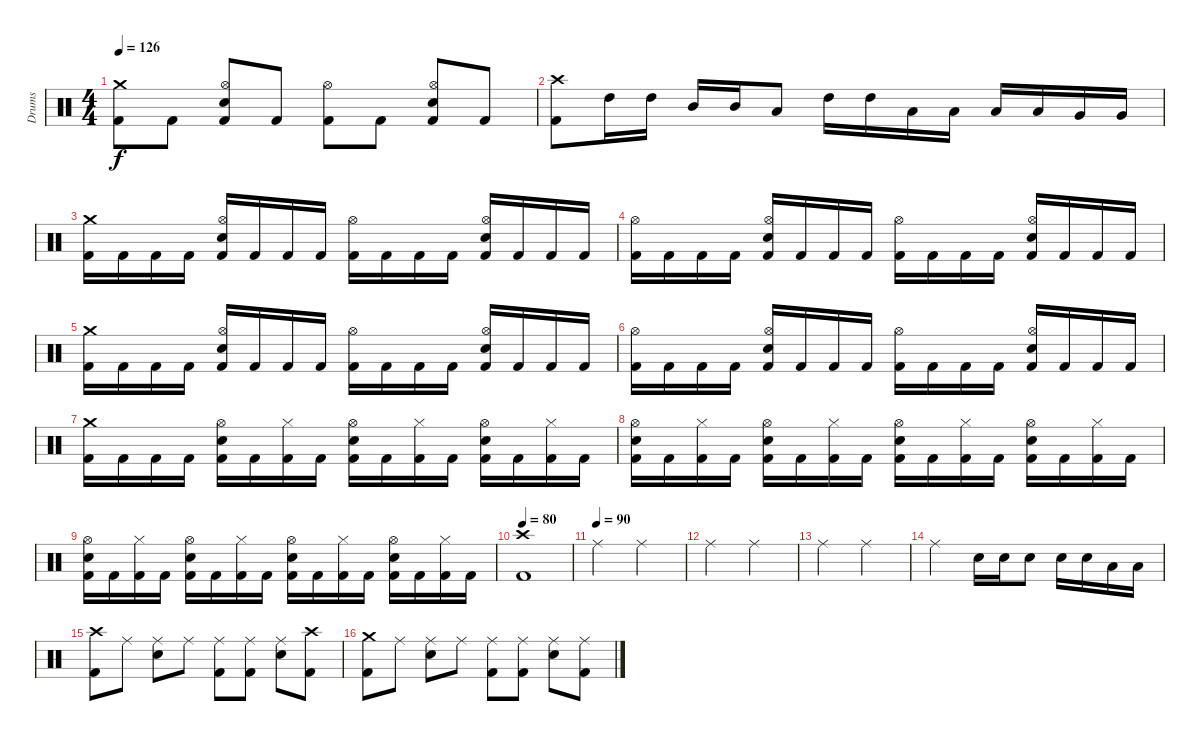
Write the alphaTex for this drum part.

\track ("Drums" "Drums") {instrument percussion}
\staff {score}
\articulation defaults
\ts (4 4)
\tempo 126
\clef neutral
\ks c
("Crash medium (hit)" "Kick (hit) 2").8{dy f} "Kick (hit) 2".8 ("Hi-Hat (open)" "Electric Snare (hit)" "Kick (hit) 2").8 "Kick (hit) 2".8 ("Hi-Hat (open)" "Kick (hit) 2").8 "Kick (hit) 2".8 ("Hi-Hat (open)" "Electric Snare (hit)" "Kick (hit) 2").8 "Kick (hit) 2".8 |
("Crash high (hit)" "Kick (hit) 2").8 "High Tom (hit)".16 "High Tom (hit)".16 "Mid Tom (hit)".16 "Mid Tom (hit)".16 "Low Tom (hit)".8 "High Tom (hit)".16 "High Tom (hit)".16 "Low Tom (hit)".16 "Low Tom (hit)".16 "Low Floor Tom (hit)".16 "Low Floor Tom (hit)".16 "Very Low Tom (hit)".16 "Very Low Tom (hit)".16 |
("Crash medium (hit)" "Kick (hit) 2").16 "Kick (hit) 2".16 "Kick (hit) 2".16 "Kick (hit) 2".16 ("Hi-Hat (open)" "Electric Snare (hit)" "Kick (hit) 2").16 "Kick (hit) 2".16 "Kick (hit) 2".16 "Kick (hit) 2".16 ("Hi-Hat (open)" "Kick (hit) 2").16 "Kick (hit) 2".16 "Kick (hit) 2".16 "Kick (hit) 2".16 ("Hi-Hat (open)" "Electric Snare (hit)" "Kick (hit) 2").16 "Kick (hit) 2".16 "Kick (hit) 2".16 "Kick (hit) 2".16 |
("Hi-Hat (open)" "Kick (hit) 2").16 "Kick (hit) 2".16 "Kick (hit) 2".16 "Kick (hit) 2".16 ("Hi-Hat (open)" "Electric Snare (hit)" "Kick (hit) 2").16 "Kick (hit) 2".16 "Kick (hit) 2".16 "Kick (hit) 2".16 ("Hi-Hat (open)" "Kick (hit) 2").16 "Kick (hit) 2".16 "Kick (hit) 2".16 "Kick (hit) 2".16 ("Hi-Hat (open)" "Electric Snare (hit)" "Kick (hit) 2").16 "Kick (hit) 2".16 "Kick (hit) 2".16 "Kick (hit) 2".16 |
("Crash medium (hit)" "Kick (hit) 2").16 "Kick (hit) 2".16 "Kick (hit) 2".16 "Kick (hit) 2".16 ("Hi-Hat (open)" "Electric Snare (hit)" "Kick (hit) 2").16 "Kick (hit) 2".16 "Kick (hit) 2".16 "Kick (hit) 2".16 ("Hi-Hat (open)" "Kick (hit) 2").16 "Kick (hit) 2".16 "Kick (hit) 2".16 "Kick (hit) 2".16 ("Hi-Hat (open)" "Electric Snare (hit)" "Kick (hit) 2").16 "Kick (hit) 2".16 "Kick (hit) 2".16 "Kick (hit) 2".16 |
("Hi-Hat (open)" "Kick (hit) 2").16 "Kick (hit) 2".16 "Kick (hit) 2".16 "Kick (hit) 2".16 ("Hi-Hat (open)" "Electric Snare (hit)" "Kick (hit) 2").16 "Kick (hit) 2".16 "Kick (hit) 2".16 "Kick (hit) 2".16 ("Hi-Hat (open)" "Kick (hit) 2").16 "Kick (hit) 2".16 "Kick (hit) 2".16 "Kick (hit) 2".16 ("Hi-Hat (open)" "Electric Snare (hit)" "Kick (hit) 2").16 "Kick (hit) 2".16 "Kick (hit) 2".16 "Kick (hit) 2".16 |
("Crash medium (hit)" "Kick (hit) 2").16 "Kick (hit) 2".16 "Kick (hit) 2".16 "Kick (hit) 2".16 ("Hi-Hat (open)" "Electric Snare (hit)" "Kick (hit) 2").16 "Kick (hit) 2".16 ("Hi-Hat (closed)" "Kick (hit) 2").16 "Kick (hit) 2".16 ("Hi-Hat (open)" "Electric Snare (hit)" "Kick (hit) 2").16 "Kick (hit) 2".16 ("Hi-Hat (closed)" "Kick (hit) 2").16 "Kick (hit) 2".16 ("Hi-Hat (open)" "Electric Snare (hit)" "Kick (hit) 2").16 "Kick (hit) 2".16 ("Hi-Hat (closed)" "Kick (hit) 2").16 "Kick (hit) 2".16 |
("Hi-Hat (open)" "Electric Snare (hit)" "Kick (hit) 2").16 "Kick (hit) 2".16 ("Hi-Hat (closed)" "Kick (hit) 2").16 "Kick (hit) 2".16 ("Hi-Hat (open)" "Electric Snare (hit)" "Kick (hit) 2").16 "Kick (hit) 2".16 ("Hi-Hat (closed)" "Kick (hit) 2").16 "Kick (hit) 2".16 ("Hi-Hat (open)" "Electric Snare (hit)" "Kick (hit) 2").16 "Kick (hit) 2".16 ("Hi-Hat (closed)" "Kick (hit) 2").16 "Kick (hit) 2".16 ("Hi-Hat (open)" "Electric Snare (hit)" "Kick (hit) 2").16 "Kick (hit) 2".16 ("Hi-Hat (closed)" "Kick (hit) 2").16 "Kick (hit) 2".16 |
("Hi-Hat (open)" "Electric Snare (hit)" "Kick (hit) 2").16 "Kick (hit) 2".16 ("Hi-Hat (closed)" "Kick (hit) 2").16 "Kick (hit) 2".16 ("Hi-Hat (open)" "Electric Snare (hit)" "Kick (hit) 2").16 "Kick (hit) 2".16 ("Hi-Hat (closed)" "Kick (hit) 2").16 "Kick (hit) 2".16 ("Hi-Hat (open)" "Electric Snare (hit)" "Kick (hit) 2").16 "Kick (hit) 2".16 ("Hi-Hat (closed)" "Kick (hit) 2").16 "Kick (hit) 2".16 ("Hi-Hat (open)" "Electric Snare (hit)" "Kick (hit) 2").16 "Kick (hit) 2".16 ("Hi-Hat (closed)" "Kick (hit) 2").16 "Kick (hit) 2".16 |
\tempo 80
("Crash high (hit)" "Kick (hit) 2").1 |
\tempo (90)
"Ride (middle)".2 "Ride (middle)".2 |
"Ride (middle)".2 "Ride (middle)".2 |
"Ride (middle)".2 "Ride (middle)".2 |
"Ride (middle)".2 "Electric Snare (hit)".16 "Electric Snare (hit)".16 "Electric Snare (hit)".8 "Electric Snare (hit)".16 "Electric Snare (hit)".16 "Low Tom (hit)".16 "Low Floor Tom (hit)".16 |
("Crash high (hit)" "Kick (hit) 2").8 "Ride (middle)".8 ("Ride (middle)" "Electric Snare (hit)").8 "Ride (middle)".8 ("Ride (middle)" "Kick (hit) 2").8 ("Ride (middle)" "Kick (hit) 2").8 ("Ride (middle)" "Electric Snare (hit)").8 ("Crash high (hit)" "Kick (hit) 2").8 |
("Crash medium (hit)" "Kick (hit) 2").8 "Ride (middle)".8 ("Ride (middle)" "Electric Snare (hit)").8 "Ride (middle)".8 ("Ride (middle)" "Kick (hit) 2").8 ("Ride (middle)" "Kick (hit) 2").8 ("Ride (middle)" "Electric Snare (hit)").8 ("Ride (middle)" "Kick (hit) 2").8
